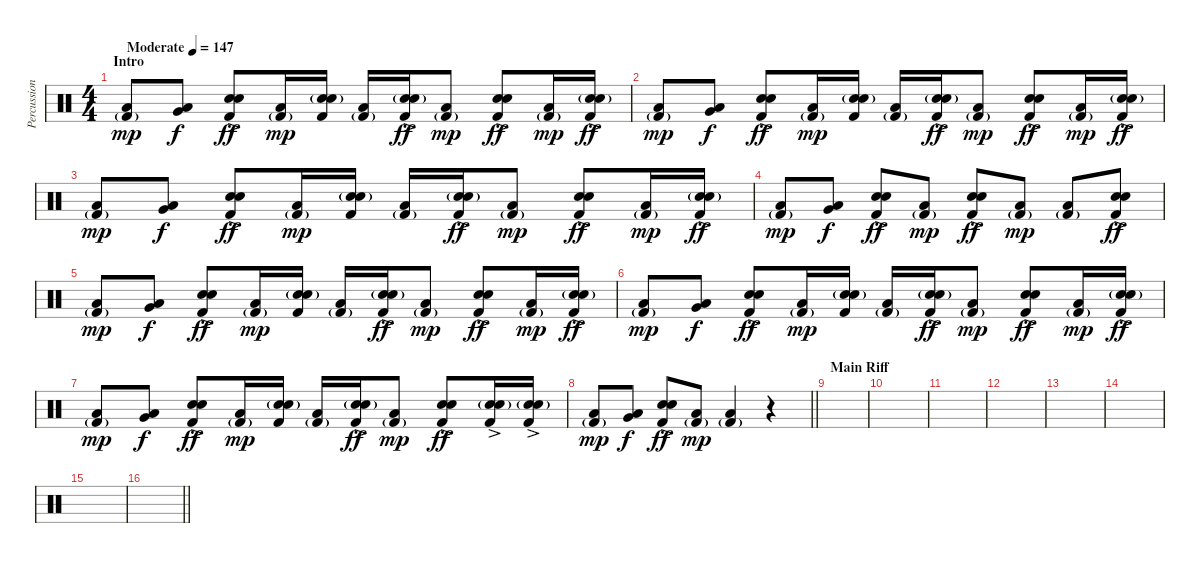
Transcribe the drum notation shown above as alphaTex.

\track ("Percussions" "Percussion") {instrument percussion}
\staff {score}
\articulation defaults
\ts (4 4)
\section ("" "Intro")
\tempo (147 "Moderate")
\clef neutral
\ks c
("Low Floor Tom (hit)" "Kick (hit) 2"{g}).8{dy mp volume 10} ("Very Low Tom (hit)" "Low Floor Tom (hit)").8{dy f} ("Electric Snare (hit)" "Snare (hit) 2" "Kick (hit) 2"{ac}).8{dy ff} ("Low Floor Tom (hit)" "Kick (hit) 2"{g}).16{dy mp} ("Electric Snare (hit)"{g} "Snare (hit) 2"{g} "Kick (hit) 2").16 ("Low Floor Tom (hit)" "Kick (hit) 2"{g}).16 ("Electric Snare (hit)"{g} "Snare (hit) 2" "Kick (hit) 2"{ac}).16{dy ff} ("Low Floor Tom (hit)" "Kick (hit) 2"{g}).8{dy mp} ("Electric Snare (hit)" "Snare (hit) 2" "Kick (hit) 2"{ac}).8{dy ff} ("Low Floor Tom (hit)" "Kick (hit) 2"{g}).16{dy mp} ("Electric Snare (hit)"{g} "Snare (hit) 2" "Kick (hit) 2"{ac}).16{dy ff} |
("Low Floor Tom (hit)" "Kick (hit) 2"{g}).8{dy mp} ("Very Low Tom (hit)" "Low Floor Tom (hit)").8{dy f} ("Electric Snare (hit)" "Snare (hit) 2" "Kick (hit) 2"{ac}).8{dy ff} ("Low Floor Tom (hit)" "Kick (hit) 2"{g}).16{dy mp} ("Electric Snare (hit)"{g} "Snare (hit) 2"{g} "Kick (hit) 2").16 ("Low Floor Tom (hit)" "Kick (hit) 2"{g}).16 ("Electric Snare (hit)"{g} "Snare (hit) 2" "Kick (hit) 2"{ac}).16{dy ff} ("Low Floor Tom (hit)" "Kick (hit) 2"{g}).8{dy mp} ("Electric Snare (hit)" "Snare (hit) 2" "Kick (hit) 2"{ac}).8{dy ff} ("Low Floor Tom (hit)" "Kick (hit) 2"{g}).16{dy mp} ("Electric Snare (hit)"{g} "Snare (hit) 2" "Kick (hit) 2"{ac}).16{dy ff} |
("Low Floor Tom (hit)" "Kick (hit) 2"{g}).8{dy mp} ("Very Low Tom (hit)" "Low Floor Tom (hit)").8{dy f} ("Electric Snare (hit)" "Snare (hit) 2" "Kick (hit) 2"{ac}).8{dy ff} ("Low Floor Tom (hit)" "Kick (hit) 2"{g}).16{dy mp} ("Electric Snare (hit)"{g} "Snare (hit) 2"{g} "Kick (hit) 2").16 ("Low Floor Tom (hit)" "Kick (hit) 2"{g}).16 ("Electric Snare (hit)"{g} "Snare (hit) 2" "Kick (hit) 2"{ac}).16{dy ff} ("Low Floor Tom (hit)" "Kick (hit) 2"{g}).8{dy mp} ("Electric Snare (hit)" "Snare (hit) 2" "Kick (hit) 2"{ac}).8{dy ff} ("Low Floor Tom (hit)" "Kick (hit) 2"{g}).16{dy mp} ("Electric Snare (hit)"{g} "Snare (hit) 2" "Kick (hit) 2"{ac}).16{dy ff} |
("Low Floor Tom (hit)" "Kick (hit) 2"{g}).8{dy mp} ("Very Low Tom (hit)" "Low Floor Tom (hit)").8{dy f} ("Electric Snare (hit)" "Snare (hit) 2" "Kick (hit) 2"{ac}).8{dy ff} ("Low Floor Tom (hit)" "Kick (hit) 2"{g}).8{dy mp} ("Electric Snare (hit)" "Snare (hit) 2" "Kick (hit) 2"{ac}).8{dy ff} ("Low Floor Tom (hit)" "Kick (hit) 2"{g}).8{dy mp} ("Low Floor Tom (hit)" "Kick (hit) 2"{g}).8 ("Electric Snare (hit)" "Snare (hit) 2" "Kick (hit) 2"{ac}).8{dy ff} |
("Low Floor Tom (hit)" "Kick (hit) 2"{g}).8{dy mp} ("Very Low Tom (hit)" "Low Floor Tom (hit)").8{dy f} ("Electric Snare (hit)" "Snare (hit) 2" "Kick (hit) 2"{ac}).8{dy ff} ("Low Floor Tom (hit)" "Kick (hit) 2"{g}).16{dy mp} ("Electric Snare (hit)"{g} "Snare (hit) 2"{g} "Kick (hit) 2").16 ("Low Floor Tom (hit)" "Kick (hit) 2"{g}).16 ("Electric Snare (hit)"{g} "Snare (hit) 2" "Kick (hit) 2"{ac}).16{dy ff} ("Low Floor Tom (hit)" "Kick (hit) 2"{g}).8{dy mp} ("Electric Snare (hit)" "Snare (hit) 2" "Kick (hit) 2"{ac}).8{dy ff} ("Low Floor Tom (hit)" "Kick (hit) 2"{g}).16{dy mp} ("Electric Snare (hit)"{g} "Snare (hit) 2" "Kick (hit) 2"{ac}).16{dy ff} |
("Low Floor Tom (hit)" "Kick (hit) 2"{g}).8{dy mp} ("Very Low Tom (hit)" "Low Floor Tom (hit)").8{dy f} ("Electric Snare (hit)" "Snare (hit) 2" "Kick (hit) 2"{ac}).8{dy ff} ("Low Floor Tom (hit)" "Kick (hit) 2"{g}).16{dy mp} ("Electric Snare (hit)"{g} "Snare (hit) 2"{g} "Kick (hit) 2").16 ("Low Floor Tom (hit)" "Kick (hit) 2"{g}).16 ("Electric Snare (hit)"{g} "Snare (hit) 2" "Kick (hit) 2"{ac}).16{dy ff} ("Low Floor Tom (hit)" "Kick (hit) 2"{g}).8{dy mp} ("Electric Snare (hit)" "Snare (hit) 2" "Kick (hit) 2"{ac}).8{dy ff} ("Low Floor Tom (hit)" "Kick (hit) 2"{g}).16{dy mp} ("Electric Snare (hit)"{g} "Snare (hit) 2" "Kick (hit) 2"{ac}).16{dy ff} |
("Low Floor Tom (hit)" "Kick (hit) 2"{g}).8{dy mp} ("Very Low Tom (hit)" "Low Floor Tom (hit)").8{dy f} ("Electric Snare (hit)" "Snare (hit) 2" "Kick (hit) 2"{ac}).8{dy ff} ("Low Floor Tom (hit)" "Kick (hit) 2"{g}).16{dy mp} ("Electric Snare (hit)"{g} "Snare (hit) 2"{g} "Kick (hit) 2").16 ("Low Floor Tom (hit)" "Kick (hit) 2"{g}).16 ("Electric Snare (hit)"{g} "Snare (hit) 2" "Kick (hit) 2"{ac}).16{dy ff} ("Low Floor Tom (hit)" "Kick (hit) 2"{g}).8{dy mp} ("Electric Snare (hit)" "Snare (hit) 2" "Kick (hit) 2"{ac}).8{dy ff} ("Electric Snare (hit)"{g} "Snare (hit) 2" "Kick (hit) 2"{ac}).16 ("Electric Snare (hit)"{g} "Snare (hit) 2" "Kick (hit) 2"{ac}).16 |
\barLineRight lightlight
("Low Floor Tom (hit)" "Kick (hit) 2"{g}).8{dy mp} ("Very Low Tom (hit)" "Low Floor Tom (hit)").8{dy f} ("Electric Snare (hit)" "Snare (hit) 2" "Kick (hit) 2"{ac}).8{dy ff} ("Low Floor Tom (hit)" "Kick (hit) 2"{g}).8{dy mp} ("Low Floor Tom (hit)" "Kick (hit) 2"{g}).4 r.4{volume 13} |
\section ("" "Main Riff")
|
|
|
|
|
|
|
\barLineRight lightlight
